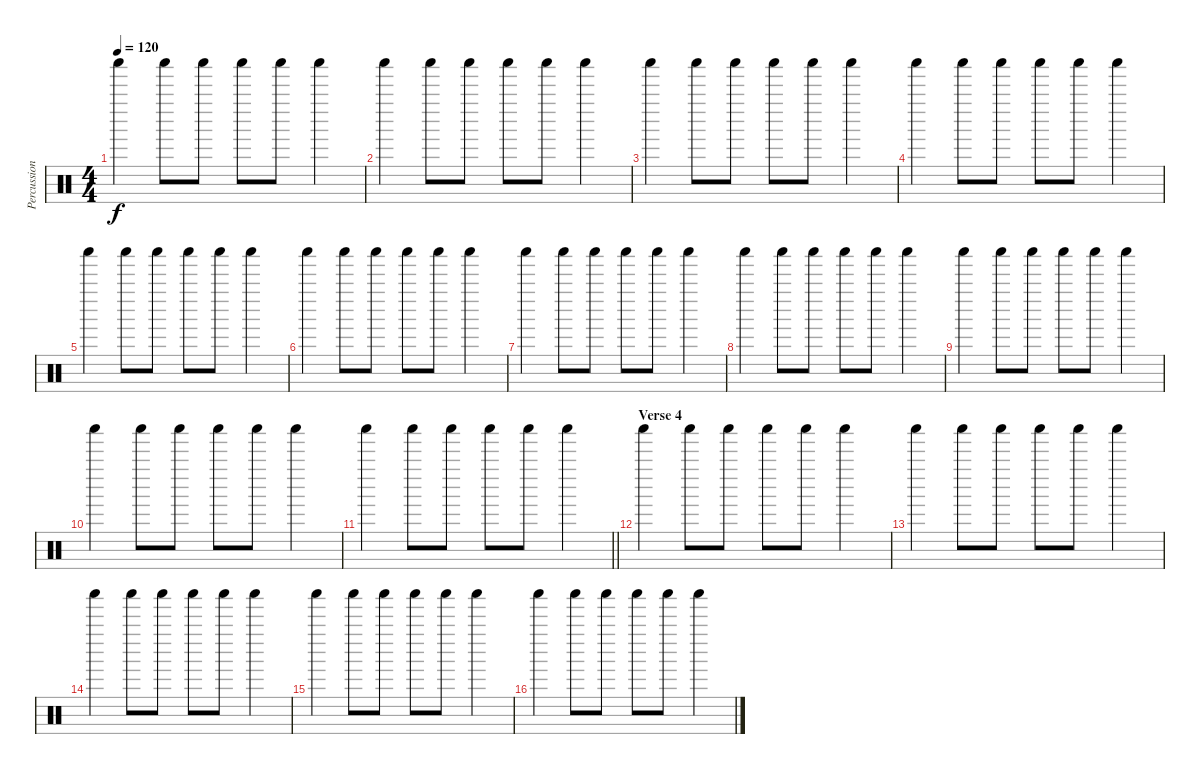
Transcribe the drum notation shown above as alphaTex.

\track ("Percussion" "Percussion") {instrument percussion}
\staff {score}
\articulation defaults
\ts (4 4)
\tempo 120
\clef neutral
\ks c "Shaker (hit)".4{dy f} "Shaker (hit)".8 "Shaker (hit)".8 "Shaker (hit)".8 "Shaker (hit)".8 "Shaker (hit)".4
|
"Shaker (hit)".4 "Shaker (hit)".8 "Shaker (hit)".8 "Shaker (hit)".8 "Shaker (hit)".8 "Shaker (hit)".4 |
"Shaker (hit)".4 "Shaker (hit)".8 "Shaker (hit)".8 "Shaker (hit)".8 "Shaker (hit)".8 "Shaker (hit)".4 |
"Shaker (hit)".4 "Shaker (hit)".8 "Shaker (hit)".8 "Shaker (hit)".8 "Shaker (hit)".8 "Shaker (hit)".4 |
"Shaker (hit)".4 "Shaker (hit)".8 "Shaker (hit)".8 "Shaker (hit)".8 "Shaker (hit)".8 "Shaker (hit)".4 |
"Shaker (hit)".4 "Shaker (hit)".8 "Shaker (hit)".8 "Shaker (hit)".8 "Shaker (hit)".8 "Shaker (hit)".4 |
"Shaker (hit)".4 "Shaker (hit)".8 "Shaker (hit)".8 "Shaker (hit)".8 "Shaker (hit)".8 "Shaker (hit)".4 |
"Shaker (hit)".4 "Shaker (hit)".8 "Shaker (hit)".8 "Shaker (hit)".8 "Shaker (hit)".8 "Shaker (hit)".4 |
"Shaker (hit)".4 "Shaker (hit)".8 "Shaker (hit)".8 "Shaker (hit)".8 "Shaker (hit)".8 "Shaker (hit)".4 |
"Shaker (hit)".4 "Shaker (hit)".8 "Shaker (hit)".8 "Shaker (hit)".8 "Shaker (hit)".8 "Shaker (hit)".4 |
\barLineRight lightlight "Shaker (hit)".4 "Shaker (hit)".8 "Shaker (hit)".8 "Shaker (hit)".8 "Shaker (hit)".8 "Shaker (hit)".4
|
\section ("" "Verse 4")
"Shaker (hit)".4 "Shaker (hit)".8 "Shaker (hit)".8 "Shaker (hit)".8 "Shaker (hit)".8 "Shaker (hit)".4 |
"Shaker (hit)".4 "Shaker (hit)".8 "Shaker (hit)".8 "Shaker (hit)".8 "Shaker (hit)".8 "Shaker (hit)".4 |
"Shaker (hit)".4 "Shaker (hit)".8 "Shaker (hit)".8 "Shaker (hit)".8 "Shaker (hit)".8 "Shaker (hit)".4 |
"Shaker (hit)".4 "Shaker (hit)".8 "Shaker (hit)".8 "Shaker (hit)".8 "Shaker (hit)".8 "Shaker (hit)".4 |
"Shaker (hit)".4 "Shaker (hit)".8 "Shaker (hit)".8 "Shaker (hit)".8 "Shaker (hit)".8 "Shaker (hit)".4
